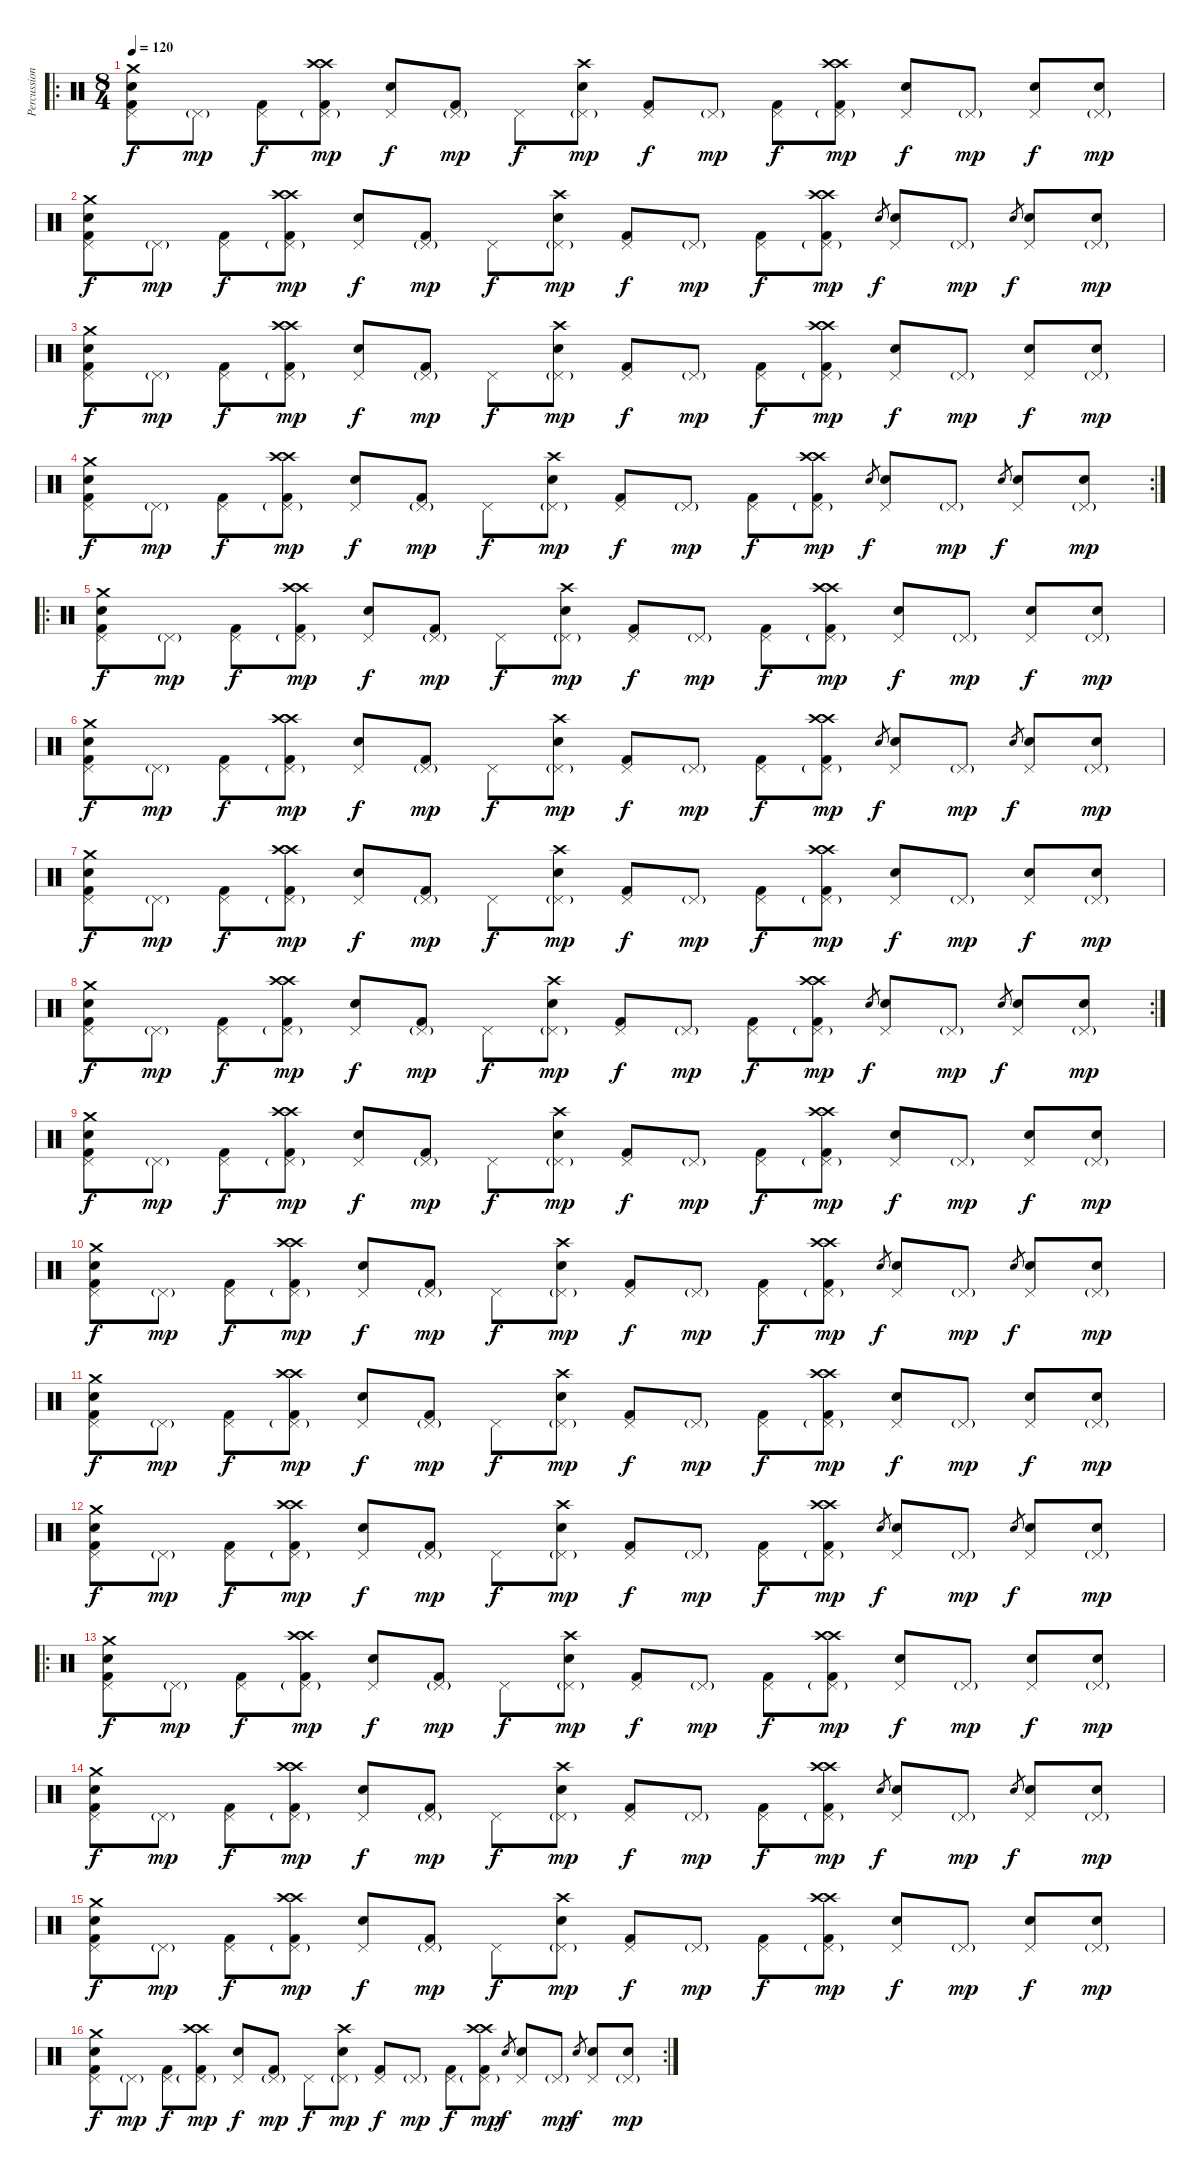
\track ("Percussion" "Percussion") {instrument percussion}
\staff {score}
\articulation defaults
\ro
\ts (8 4)
\tempo 120
\clef neutral
\ks c
("Crash medium (hit)" "Electric Snare (hit)" "Kick (hit) 2" "Pedal Hi-Hat (hit)").8{dy f} "Pedal Hi-Hat (hit)"{g}.8{dy mp} ("Kick (hit) 2" "Pedal Hi-Hat (hit)").8{dy f} ("Crash high (hit)" "Crash high (hit)" "Kick (hit) 2" "Pedal Hi-Hat (hit)"{g}).8{dy mp} ("Electric Snare (hit)" "Pedal Hi-Hat (hit)").8{dy f} ("Kick (hit) 2" "Pedal Hi-Hat (hit)"{g}).8{dy mp} "Pedal Hi-Hat (hit)".8{dy f} ("Crash high (hit)" "Electric Snare (hit)" "Pedal Hi-Hat (hit)"{g}).8{dy mp} ("Kick (hit) 2" "Pedal Hi-Hat (hit)").8{dy f} "Pedal Hi-Hat (hit)"{g}.8{dy mp} ("Kick (hit) 2" "Pedal Hi-Hat (hit)").8{dy f} ("Crash high (hit)" "Crash high (hit)" "Kick (hit) 2" "Pedal Hi-Hat (hit)"{g}).8{dy mp} ("Electric Snare (hit)" "Pedal Hi-Hat (hit)").8{dy f} "Pedal Hi-Hat (hit)"{g}.8{dy mp} ("Electric Snare (hit)" "Pedal Hi-Hat (hit)").8{dy f} ("Electric Snare (hit)" "Pedal Hi-Hat (hit)"{g}).8{dy mp} |
("Crash medium (hit)" "Electric Snare (hit)" "Kick (hit) 2" "Pedal Hi-Hat (hit)").8{dy f} "Pedal Hi-Hat (hit)"{g}.8{dy mp} ("Kick (hit) 2" "Pedal Hi-Hat (hit)").8{dy f} ("Crash high (hit)" "Crash high (hit)" "Kick (hit) 2" "Pedal Hi-Hat (hit)"{g}).8{dy mp} ("Electric Snare (hit)" "Pedal Hi-Hat (hit)").8{dy f} ("Kick (hit) 2" "Pedal Hi-Hat (hit)"{g}).8{dy mp} "Pedal Hi-Hat (hit)".8{dy f} ("Crash high (hit)" "Electric Snare (hit)" "Pedal Hi-Hat (hit)"{g}).8{dy mp} ("Kick (hit) 2" "Pedal Hi-Hat (hit)").8{dy f} "Pedal Hi-Hat (hit)"{g}.8{dy mp} ("Kick (hit) 2" "Pedal Hi-Hat (hit)").8{dy f} ("Crash high (hit)" "Crash high (hit)" "Kick (hit) 2" "Pedal Hi-Hat (hit)"{g}).8{dy mp} "Electric Snare (hit)".8{gr dy f} ("Electric Snare (hit)" "Pedal Hi-Hat (hit)").8 "Pedal Hi-Hat (hit)"{g}.8{dy mp} "Electric Snare (hit)".8{gr dy f} ("Electric Snare (hit)" "Pedal Hi-Hat (hit)").8 ("Electric Snare (hit)" "Pedal Hi-Hat (hit)"{g}).8{dy mp} |
("Crash medium (hit)" "Electric Snare (hit)" "Kick (hit) 2" "Pedal Hi-Hat (hit)").8{dy f} "Pedal Hi-Hat (hit)"{g}.8{dy mp} ("Kick (hit) 2" "Pedal Hi-Hat (hit)").8{dy f} ("Crash high (hit)" "Crash high (hit)" "Kick (hit) 2" "Pedal Hi-Hat (hit)"{g}).8{dy mp} ("Electric Snare (hit)" "Pedal Hi-Hat (hit)").8{dy f} ("Kick (hit) 2" "Pedal Hi-Hat (hit)"{g}).8{dy mp} "Pedal Hi-Hat (hit)".8{dy f} ("Crash high (hit)" "Electric Snare (hit)" "Pedal Hi-Hat (hit)"{g}).8{dy mp} ("Kick (hit) 2" "Pedal Hi-Hat (hit)").8{dy f} "Pedal Hi-Hat (hit)"{g}.8{dy mp} ("Kick (hit) 2" "Pedal Hi-Hat (hit)").8{dy f} ("Crash high (hit)" "Crash high (hit)" "Kick (hit) 2" "Pedal Hi-Hat (hit)"{g}).8{dy mp} ("Electric Snare (hit)" "Pedal Hi-Hat (hit)").8{dy f} "Pedal Hi-Hat (hit)"{g}.8{dy mp} ("Electric Snare (hit)" "Pedal Hi-Hat (hit)").8{dy f} ("Electric Snare (hit)" "Pedal Hi-Hat (hit)"{g}).8{dy mp} |
\rc 2
("Crash medium (hit)" "Electric Snare (hit)" "Kick (hit) 2" "Pedal Hi-Hat (hit)").8{dy f} "Pedal Hi-Hat (hit)"{g}.8{dy mp} ("Kick (hit) 2" "Pedal Hi-Hat (hit)").8{dy f} ("Crash high (hit)" "Crash high (hit)" "Kick (hit) 2" "Pedal Hi-Hat (hit)"{g}).8{dy mp} ("Electric Snare (hit)" "Pedal Hi-Hat (hit)").8{dy f} ("Kick (hit) 2" "Pedal Hi-Hat (hit)"{g}).8{dy mp} "Pedal Hi-Hat (hit)".8{dy f} ("Crash high (hit)" "Electric Snare (hit)" "Pedal Hi-Hat (hit)"{g}).8{dy mp} ("Kick (hit) 2" "Pedal Hi-Hat (hit)").8{dy f} "Pedal Hi-Hat (hit)"{g}.8{dy mp} ("Kick (hit) 2" "Pedal Hi-Hat (hit)").8{dy f} ("Crash high (hit)" "Crash high (hit)" "Kick (hit) 2" "Pedal Hi-Hat (hit)"{g}).8{dy mp} "Electric Snare (hit)".8{gr dy f} ("Electric Snare (hit)" "Pedal Hi-Hat (hit)").8 "Pedal Hi-Hat (hit)"{g}.8{dy mp} "Electric Snare (hit)".8{gr dy f} ("Electric Snare (hit)" "Pedal Hi-Hat (hit)").8 ("Electric Snare (hit)" "Pedal Hi-Hat (hit)"{g}).8{dy mp} |
\ro
("Crash medium (hit)" "Electric Snare (hit)" "Kick (hit) 2" "Pedal Hi-Hat (hit)").8{dy f} "Pedal Hi-Hat (hit)"{g}.8{dy mp} ("Kick (hit) 2" "Pedal Hi-Hat (hit)").8{dy f} ("Crash high (hit)" "Crash high (hit)" "Kick (hit) 2" "Pedal Hi-Hat (hit)"{g}).8{dy mp} ("Electric Snare (hit)" "Pedal Hi-Hat (hit)").8{dy f} ("Kick (hit) 2" "Pedal Hi-Hat (hit)"{g}).8{dy mp} "Pedal Hi-Hat (hit)".8{dy f} ("Crash high (hit)" "Electric Snare (hit)" "Pedal Hi-Hat (hit)"{g}).8{dy mp} ("Kick (hit) 2" "Pedal Hi-Hat (hit)").8{dy f} "Pedal Hi-Hat (hit)"{g}.8{dy mp} ("Kick (hit) 2" "Pedal Hi-Hat (hit)").8{dy f} ("Crash high (hit)" "Crash high (hit)" "Kick (hit) 2" "Pedal Hi-Hat (hit)"{g}).8{dy mp} ("Electric Snare (hit)" "Pedal Hi-Hat (hit)").8{dy f} "Pedal Hi-Hat (hit)"{g}.8{dy mp} ("Electric Snare (hit)" "Pedal Hi-Hat (hit)").8{dy f} ("Electric Snare (hit)" "Pedal Hi-Hat (hit)"{g}).8{dy mp} |
("Crash medium (hit)" "Electric Snare (hit)" "Kick (hit) 2" "Pedal Hi-Hat (hit)").8{dy f} "Pedal Hi-Hat (hit)"{g}.8{dy mp} ("Kick (hit) 2" "Pedal Hi-Hat (hit)").8{dy f} ("Crash high (hit)" "Crash high (hit)" "Kick (hit) 2" "Pedal Hi-Hat (hit)"{g}).8{dy mp} ("Electric Snare (hit)" "Pedal Hi-Hat (hit)").8{dy f} ("Kick (hit) 2" "Pedal Hi-Hat (hit)"{g}).8{dy mp} "Pedal Hi-Hat (hit)".8{dy f} ("Crash high (hit)" "Electric Snare (hit)" "Pedal Hi-Hat (hit)"{g}).8{dy mp} ("Kick (hit) 2" "Pedal Hi-Hat (hit)").8{dy f} "Pedal Hi-Hat (hit)"{g}.8{dy mp} ("Kick (hit) 2" "Pedal Hi-Hat (hit)").8{dy f} ("Crash high (hit)" "Crash high (hit)" "Kick (hit) 2" "Pedal Hi-Hat (hit)"{g}).8{dy mp} "Electric Snare (hit)".8{gr dy f} ("Electric Snare (hit)" "Pedal Hi-Hat (hit)").8 "Pedal Hi-Hat (hit)"{g}.8{dy mp} "Electric Snare (hit)".8{gr dy f} ("Electric Snare (hit)" "Pedal Hi-Hat (hit)").8 ("Electric Snare (hit)" "Pedal Hi-Hat (hit)"{g}).8{dy mp} |
("Crash medium (hit)" "Electric Snare (hit)" "Kick (hit) 2" "Pedal Hi-Hat (hit)").8{dy f} "Pedal Hi-Hat (hit)"{g}.8{dy mp} ("Kick (hit) 2" "Pedal Hi-Hat (hit)").8{dy f} ("Crash high (hit)" "Crash high (hit)" "Kick (hit) 2" "Pedal Hi-Hat (hit)"{g}).8{dy mp} ("Electric Snare (hit)" "Pedal Hi-Hat (hit)").8{dy f} ("Kick (hit) 2" "Pedal Hi-Hat (hit)"{g}).8{dy mp} "Pedal Hi-Hat (hit)".8{dy f} ("Crash high (hit)" "Electric Snare (hit)" "Pedal Hi-Hat (hit)"{g}).8{dy mp} ("Kick (hit) 2" "Pedal Hi-Hat (hit)").8{dy f} "Pedal Hi-Hat (hit)"{g}.8{dy mp} ("Kick (hit) 2" "Pedal Hi-Hat (hit)").8{dy f} ("Crash high (hit)" "Crash high (hit)" "Kick (hit) 2" "Pedal Hi-Hat (hit)"{g}).8{dy mp} ("Electric Snare (hit)" "Pedal Hi-Hat (hit)").8{dy f} "Pedal Hi-Hat (hit)"{g}.8{dy mp} ("Electric Snare (hit)" "Pedal Hi-Hat (hit)").8{dy f} ("Electric Snare (hit)" "Pedal Hi-Hat (hit)"{g}).8{dy mp} |
\rc 2
("Crash medium (hit)" "Electric Snare (hit)" "Kick (hit) 2" "Pedal Hi-Hat (hit)").8{dy f} "Pedal Hi-Hat (hit)"{g}.8{dy mp} ("Kick (hit) 2" "Pedal Hi-Hat (hit)").8{dy f} ("Crash high (hit)" "Crash high (hit)" "Kick (hit) 2" "Pedal Hi-Hat (hit)"{g}).8{dy mp} ("Electric Snare (hit)" "Pedal Hi-Hat (hit)").8{dy f} ("Kick (hit) 2" "Pedal Hi-Hat (hit)"{g}).8{dy mp} "Pedal Hi-Hat (hit)".8{dy f} ("Crash high (hit)" "Electric Snare (hit)" "Pedal Hi-Hat (hit)"{g}).8{dy mp} ("Kick (hit) 2" "Pedal Hi-Hat (hit)").8{dy f} "Pedal Hi-Hat (hit)"{g}.8{dy mp} ("Kick (hit) 2" "Pedal Hi-Hat (hit)").8{dy f} ("Crash high (hit)" "Crash high (hit)" "Kick (hit) 2" "Pedal Hi-Hat (hit)"{g}).8{dy mp} "Electric Snare (hit)".8{gr dy f} ("Electric Snare (hit)" "Pedal Hi-Hat (hit)").8 "Pedal Hi-Hat (hit)"{g}.8{dy mp} "Electric Snare (hit)".8{gr dy f} ("Electric Snare (hit)" "Pedal Hi-Hat (hit)").8 ("Electric Snare (hit)" "Pedal Hi-Hat (hit)"{g}).8{dy mp} |
("Crash medium (hit)" "Electric Snare (hit)" "Kick (hit) 2" "Pedal Hi-Hat (hit)").8{dy f} "Pedal Hi-Hat (hit)"{g}.8{dy mp} ("Kick (hit) 2" "Pedal Hi-Hat (hit)").8{dy f} ("Crash high (hit)" "Crash high (hit)" "Kick (hit) 2" "Pedal Hi-Hat (hit)"{g}).8{dy mp} ("Electric Snare (hit)" "Pedal Hi-Hat (hit)").8{dy f} ("Kick (hit) 2" "Pedal Hi-Hat (hit)"{g}).8{dy mp} "Pedal Hi-Hat (hit)".8{dy f} ("Crash high (hit)" "Electric Snare (hit)" "Pedal Hi-Hat (hit)"{g}).8{dy mp} ("Kick (hit) 2" "Pedal Hi-Hat (hit)").8{dy f} "Pedal Hi-Hat (hit)"{g}.8{dy mp} ("Kick (hit) 2" "Pedal Hi-Hat (hit)").8{dy f} ("Crash high (hit)" "Crash high (hit)" "Kick (hit) 2" "Pedal Hi-Hat (hit)"{g}).8{dy mp} ("Electric Snare (hit)" "Pedal Hi-Hat (hit)").8{dy f} "Pedal Hi-Hat (hit)"{g}.8{dy mp} ("Electric Snare (hit)" "Pedal Hi-Hat (hit)").8{dy f} ("Electric Snare (hit)" "Pedal Hi-Hat (hit)"{g}).8{dy mp} |
("Crash medium (hit)" "Electric Snare (hit)" "Kick (hit) 2" "Pedal Hi-Hat (hit)").8{dy f} "Pedal Hi-Hat (hit)"{g}.8{dy mp} ("Kick (hit) 2" "Pedal Hi-Hat (hit)").8{dy f} ("Crash high (hit)" "Crash high (hit)" "Kick (hit) 2" "Pedal Hi-Hat (hit)"{g}).8{dy mp} ("Electric Snare (hit)" "Pedal Hi-Hat (hit)").8{dy f} ("Kick (hit) 2" "Pedal Hi-Hat (hit)"{g}).8{dy mp} "Pedal Hi-Hat (hit)".8{dy f} ("Crash high (hit)" "Electric Snare (hit)" "Pedal Hi-Hat (hit)"{g}).8{dy mp} ("Kick (hit) 2" "Pedal Hi-Hat (hit)").8{dy f} "Pedal Hi-Hat (hit)"{g}.8{dy mp} ("Kick (hit) 2" "Pedal Hi-Hat (hit)").8{dy f} ("Crash high (hit)" "Crash high (hit)" "Kick (hit) 2" "Pedal Hi-Hat (hit)"{g}).8{dy mp} "Electric Snare (hit)".8{gr dy f} ("Electric Snare (hit)" "Pedal Hi-Hat (hit)").8 "Pedal Hi-Hat (hit)"{g}.8{dy mp} "Electric Snare (hit)".8{gr dy f} ("Electric Snare (hit)" "Pedal Hi-Hat (hit)").8 ("Electric Snare (hit)" "Pedal Hi-Hat (hit)"{g}).8{dy mp} |
("Crash medium (hit)" "Electric Snare (hit)" "Kick (hit) 2" "Pedal Hi-Hat (hit)").8{dy f} "Pedal Hi-Hat (hit)"{g}.8{dy mp} ("Kick (hit) 2" "Pedal Hi-Hat (hit)").8{dy f} ("Crash high (hit)" "Crash high (hit)" "Kick (hit) 2" "Pedal Hi-Hat (hit)"{g}).8{dy mp} ("Electric Snare (hit)" "Pedal Hi-Hat (hit)").8{dy f} ("Kick (hit) 2" "Pedal Hi-Hat (hit)"{g}).8{dy mp} "Pedal Hi-Hat (hit)".8{dy f} ("Crash high (hit)" "Electric Snare (hit)" "Pedal Hi-Hat (hit)"{g}).8{dy mp} ("Kick (hit) 2" "Pedal Hi-Hat (hit)").8{dy f} "Pedal Hi-Hat (hit)"{g}.8{dy mp} ("Kick (hit) 2" "Pedal Hi-Hat (hit)").8{dy f} ("Crash high (hit)" "Crash high (hit)" "Kick (hit) 2" "Pedal Hi-Hat (hit)"{g}).8{dy mp} ("Electric Snare (hit)" "Pedal Hi-Hat (hit)").8{dy f} "Pedal Hi-Hat (hit)"{g}.8{dy mp} ("Electric Snare (hit)" "Pedal Hi-Hat (hit)").8{dy f} ("Electric Snare (hit)" "Pedal Hi-Hat (hit)"{g}).8{dy mp} |
("Crash medium (hit)" "Electric Snare (hit)" "Kick (hit) 2" "Pedal Hi-Hat (hit)").8{dy f} "Pedal Hi-Hat (hit)"{g}.8{dy mp} ("Kick (hit) 2" "Pedal Hi-Hat (hit)").8{dy f} ("Crash high (hit)" "Crash high (hit)" "Kick (hit) 2" "Pedal Hi-Hat (hit)"{g}).8{dy mp} ("Electric Snare (hit)" "Pedal Hi-Hat (hit)").8{dy f} ("Kick (hit) 2" "Pedal Hi-Hat (hit)"{g}).8{dy mp} "Pedal Hi-Hat (hit)".8{dy f} ("Crash high (hit)" "Electric Snare (hit)" "Pedal Hi-Hat (hit)"{g}).8{dy mp} ("Kick (hit) 2" "Pedal Hi-Hat (hit)").8{dy f} "Pedal Hi-Hat (hit)"{g}.8{dy mp} ("Kick (hit) 2" "Pedal Hi-Hat (hit)").8{dy f} ("Crash high (hit)" "Crash high (hit)" "Kick (hit) 2" "Pedal Hi-Hat (hit)"{g}).8{dy mp} "Electric Snare (hit)".8{gr dy f} ("Electric Snare (hit)" "Pedal Hi-Hat (hit)").8 "Pedal Hi-Hat (hit)"{g}.8{dy mp} "Electric Snare (hit)".8{gr dy f} ("Electric Snare (hit)" "Pedal Hi-Hat (hit)").8 ("Electric Snare (hit)" "Pedal Hi-Hat (hit)"{g}).8{dy mp} |
\ro
("Crash medium (hit)" "Electric Snare (hit)" "Kick (hit) 2" "Pedal Hi-Hat (hit)").8{dy f} "Pedal Hi-Hat (hit)"{g}.8{dy mp} ("Kick (hit) 2" "Pedal Hi-Hat (hit)").8{dy f} ("Crash high (hit)" "Crash high (hit)" "Kick (hit) 2" "Pedal Hi-Hat (hit)"{g}).8{dy mp} ("Electric Snare (hit)" "Pedal Hi-Hat (hit)").8{dy f} ("Kick (hit) 2" "Pedal Hi-Hat (hit)"{g}).8{dy mp} "Pedal Hi-Hat (hit)".8{dy f} ("Crash high (hit)" "Electric Snare (hit)" "Pedal Hi-Hat (hit)"{g}).8{dy mp} ("Kick (hit) 2" "Pedal Hi-Hat (hit)").8{dy f} "Pedal Hi-Hat (hit)"{g}.8{dy mp} ("Kick (hit) 2" "Pedal Hi-Hat (hit)").8{dy f} ("Crash high (hit)" "Crash high (hit)" "Kick (hit) 2" "Pedal Hi-Hat (hit)"{g}).8{dy mp} ("Electric Snare (hit)" "Pedal Hi-Hat (hit)").8{dy f} "Pedal Hi-Hat (hit)"{g}.8{dy mp} ("Electric Snare (hit)" "Pedal Hi-Hat (hit)").8{dy f} ("Electric Snare (hit)" "Pedal Hi-Hat (hit)"{g}).8{dy mp} |
("Crash medium (hit)" "Electric Snare (hit)" "Kick (hit) 2" "Pedal Hi-Hat (hit)").8{dy f} "Pedal Hi-Hat (hit)"{g}.8{dy mp} ("Kick (hit) 2" "Pedal Hi-Hat (hit)").8{dy f} ("Crash high (hit)" "Crash high (hit)" "Kick (hit) 2" "Pedal Hi-Hat (hit)"{g}).8{dy mp} ("Electric Snare (hit)" "Pedal Hi-Hat (hit)").8{dy f} ("Kick (hit) 2" "Pedal Hi-Hat (hit)"{g}).8{dy mp} "Pedal Hi-Hat (hit)".8{dy f} ("Crash high (hit)" "Electric Snare (hit)" "Pedal Hi-Hat (hit)"{g}).8{dy mp} ("Kick (hit) 2" "Pedal Hi-Hat (hit)").8{dy f} "Pedal Hi-Hat (hit)"{g}.8{dy mp} ("Kick (hit) 2" "Pedal Hi-Hat (hit)").8{dy f} ("Crash high (hit)" "Crash high (hit)" "Kick (hit) 2" "Pedal Hi-Hat (hit)"{g}).8{dy mp} "Electric Snare (hit)".8{gr dy f} ("Electric Snare (hit)" "Pedal Hi-Hat (hit)").8 "Pedal Hi-Hat (hit)"{g}.8{dy mp} "Electric Snare (hit)".8{gr dy f} ("Electric Snare (hit)" "Pedal Hi-Hat (hit)").8 ("Electric Snare (hit)" "Pedal Hi-Hat (hit)"{g}).8{dy mp} |
("Crash medium (hit)" "Electric Snare (hit)" "Kick (hit) 2" "Pedal Hi-Hat (hit)").8{dy f} "Pedal Hi-Hat (hit)"{g}.8{dy mp} ("Kick (hit) 2" "Pedal Hi-Hat (hit)").8{dy f} ("Crash high (hit)" "Crash high (hit)" "Kick (hit) 2" "Pedal Hi-Hat (hit)"{g}).8{dy mp} ("Electric Snare (hit)" "Pedal Hi-Hat (hit)").8{dy f} ("Kick (hit) 2" "Pedal Hi-Hat (hit)"{g}).8{dy mp} "Pedal Hi-Hat (hit)".8{dy f} ("Crash high (hit)" "Electric Snare (hit)" "Pedal Hi-Hat (hit)"{g}).8{dy mp} ("Kick (hit) 2" "Pedal Hi-Hat (hit)").8{dy f} "Pedal Hi-Hat (hit)"{g}.8{dy mp} ("Kick (hit) 2" "Pedal Hi-Hat (hit)").8{dy f} ("Crash high (hit)" "Crash high (hit)" "Kick (hit) 2" "Pedal Hi-Hat (hit)"{g}).8{dy mp} ("Electric Snare (hit)" "Pedal Hi-Hat (hit)").8{dy f} "Pedal Hi-Hat (hit)"{g}.8{dy mp} ("Electric Snare (hit)" "Pedal Hi-Hat (hit)").8{dy f} ("Electric Snare (hit)" "Pedal Hi-Hat (hit)"{g}).8{dy mp} |
\rc 2
("Crash medium (hit)" "Electric Snare (hit)" "Kick (hit) 2" "Pedal Hi-Hat (hit)").8{dy f} "Pedal Hi-Hat (hit)"{g}.8{dy mp} ("Kick (hit) 2" "Pedal Hi-Hat (hit)").8{dy f} ("Crash high (hit)" "Crash high (hit)" "Kick (hit) 2" "Pedal Hi-Hat (hit)"{g}).8{dy mp} ("Electric Snare (hit)" "Pedal Hi-Hat (hit)").8{dy f} ("Kick (hit) 2" "Pedal Hi-Hat (hit)"{g}).8{dy mp} "Pedal Hi-Hat (hit)".8{dy f} ("Crash high (hit)" "Electric Snare (hit)" "Pedal Hi-Hat (hit)"{g}).8{dy mp} ("Kick (hit) 2" "Pedal Hi-Hat (hit)").8{dy f} "Pedal Hi-Hat (hit)"{g}.8{dy mp} ("Kick (hit) 2" "Pedal Hi-Hat (hit)").8{dy f} ("Crash high (hit)" "Crash high (hit)" "Kick (hit) 2" "Pedal Hi-Hat (hit)"{g}).8{dy mp} "Electric Snare (hit)".8{gr dy f} ("Electric Snare (hit)" "Pedal Hi-Hat (hit)").8 "Pedal Hi-Hat (hit)"{g}.8{dy mp} "Electric Snare (hit)".8{gr dy f} ("Electric Snare (hit)" "Pedal Hi-Hat (hit)").8 ("Electric Snare (hit)" "Pedal Hi-Hat (hit)"{g}).8{dy mp}
